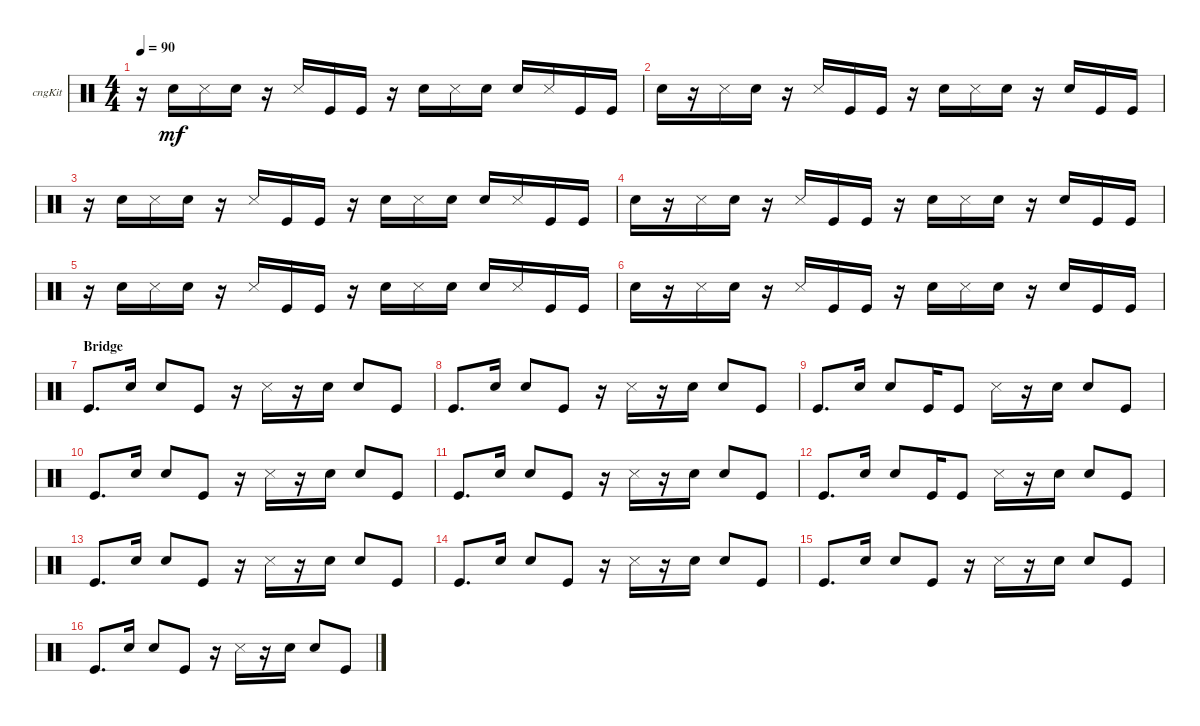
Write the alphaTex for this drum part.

\defaultSystemsLayout 4
\bracketExtendMode groupsimilarinstruments
\firstSystemTrackNameOrientation horizontal
\otherSystemsTrackNameOrientation horizontal
\track ("Congas" "cngKit") {instrument percussion}
\staff {score}
\articulation defaults
\ts (4 4)
\tempo 90
\clef neutral
\scale
0.333333
\ks c
r.16{dy mf} "Snare (hit) 2".16 "Snare (side stick) 3".16 "Snare (hit) 2".16 r.16 "Snare (side stick) 3".16 "Kick (hit)".16 "Kick (hit)".16 r.16 "Snare (hit) 2".16 "Snare (side stick) 3".16 "Snare (hit) 2".16 "Snare (hit) 2".16 "Snare (side stick) 3".16 "Kick (hit)".16 "Kick (hit)".16 |
\scale
0.333333 "Snare (hit) 2".16 r.16 "Snare (side stick) 3".16 "Snare (hit) 2".16 r.16 "Snare (side stick) 3".16 "Kick (hit)".16 "Kick (hit)".16 r.16 "Snare (hit) 2".16 "Snare (side stick) 3".16 "Snare (hit) 2".16 r.16 "Snare (hit) 2".16 "Kick (hit)".16 "Kick (hit)".16 |
\scale
0.333333 r.16 "Snare (hit) 2".16 "Snare (side stick) 3".16 "Snare (hit) 2".16 r.16 "Snare (side stick) 3".16 "Kick (hit)".16 "Kick (hit)".16 r.16 "Snare (hit) 2".16 "Snare (side stick) 3".16 "Snare (hit) 2".16 "Snare (hit) 2".16 "Snare (side stick) 3".16 "Kick (hit)".16 "Kick (hit)".16 |
\scale
0.333333 "Snare (hit) 2".16 r.16 "Snare (side stick) 3".16 "Snare (hit) 2".16 r.16 "Snare (side stick) 3".16 "Kick (hit)".16 "Kick (hit)".16 r.16 "Snare (hit) 2".16 "Snare (side stick) 3".16 "Snare (hit) 2".16 r.16 "Snare (hit) 2".16 "Kick (hit)".16 "Kick (hit)".16 |
\scale
0.333333 r.16 "Snare (hit) 2".16 "Snare (side stick) 3".16 "Snare (hit) 2".16 r.16 "Snare (side stick) 3".16 "Kick (hit)".16 "Kick (hit)".16 r.16 "Snare (hit) 2".16 "Snare (side stick) 3".16 "Snare (hit) 2".16 "Snare (hit) 2".16 "Snare (side stick) 3".16 "Kick (hit)".16 "Kick (hit)".16 |
\scale
0.333333 "Snare (hit) 2".16 r.16 "Snare (side stick) 3".16 "Snare (hit) 2".16 r.16 "Snare (side stick) 3".16 "Kick (hit)".16 "Kick (hit)".16 r.16 "Snare (hit) 2".16 "Snare (side stick) 3".16 "Snare (hit) 2".16 r.16 "Snare (hit) 2".16 "Kick (hit)".16 "Kick (hit)".16 |
\section ("" "Bridge")
\scale
0.333333 "Kick (hit)".8{d} "Snare (hit) 2".16 "Snare (hit) 2".8 "Kick (hit)".8 r.16 "Snare (side stick) 3".16 r.16 "Snare (hit) 2".16 "Snare (hit) 2".8 "Kick (hit)".8 |
\scale
0.333333 "Kick (hit)".8{d} "Snare (hit) 2".16 "Snare (hit) 2".8 "Kick (hit)".8 r.16 "Snare (side stick) 3".16 r.16 "Snare (hit) 2".16 "Snare (hit) 2".8 "Kick (hit)".8 |
\scale
0.333333 "Kick (hit)".8{d} "Snare (hit) 2".16 "Snare (hit) 2".8 "Kick (hit)".16 "Kick (hit)".8 "Snare (side stick) 3".16 r.16 "Snare (hit) 2".16 "Snare (hit) 2".8 "Kick (hit)".8 |
\scale
0.333333 "Kick (hit)".8{d} "Snare (hit) 2".16 "Snare (hit) 2".8 "Kick (hit)".8 r.16 "Snare (side stick) 3".16 r.16 "Snare (hit) 2".16 "Snare (hit) 2".8 "Kick (hit)".8 |
\scale
0.333333 "Kick (hit)".8{d} "Snare (hit) 2".16 "Snare (hit) 2".8 "Kick (hit)".8 r.16 "Snare (side stick) 3".16 r.16 "Snare (hit) 2".16 "Snare (hit) 2".8 "Kick (hit)".8 |
\scale
0.333333 "Kick (hit)".8{d} "Snare (hit) 2".16 "Snare (hit) 2".8 "Kick (hit)".16 "Kick (hit)".8 "Snare (side stick) 3".16 r.16 "Snare (hit) 2".16 "Snare (hit) 2".8 "Kick (hit)".8 |
\scale
0.333333 "Kick (hit)".8{d} "Snare (hit) 2".16 "Snare (hit) 2".8 "Kick (hit)".8 r.16 "Snare (side stick) 3".16 r.16 "Snare (hit) 2".16 "Snare (hit) 2".8 "Kick (hit)".8 |
\scale
0.333333 "Kick (hit)".8{d} "Snare (hit) 2".16 "Snare (hit) 2".8 "Kick (hit)".8 r.16 "Snare (side stick) 3".16 r.16 "Snare (hit) 2".16 "Snare (hit) 2".8 "Kick (hit)".8 |
\scale
0.333333 "Kick (hit)".8{d} "Snare (hit) 2".16 "Snare (hit) 2".8 "Kick (hit)".8 r.16 "Snare (side stick) 3".16 r.16 "Snare (hit) 2".16 "Snare (hit) 2".8 "Kick (hit)".8 |
\scale
0.333333 "Kick (hit)".8{d} "Snare (hit) 2".16 "Snare (hit) 2".8 "Kick (hit)".8 r.16 "Snare (side stick) 3".16 r.16 "Snare (hit) 2".16 "Snare (hit) 2".8 "Kick (hit)".8
